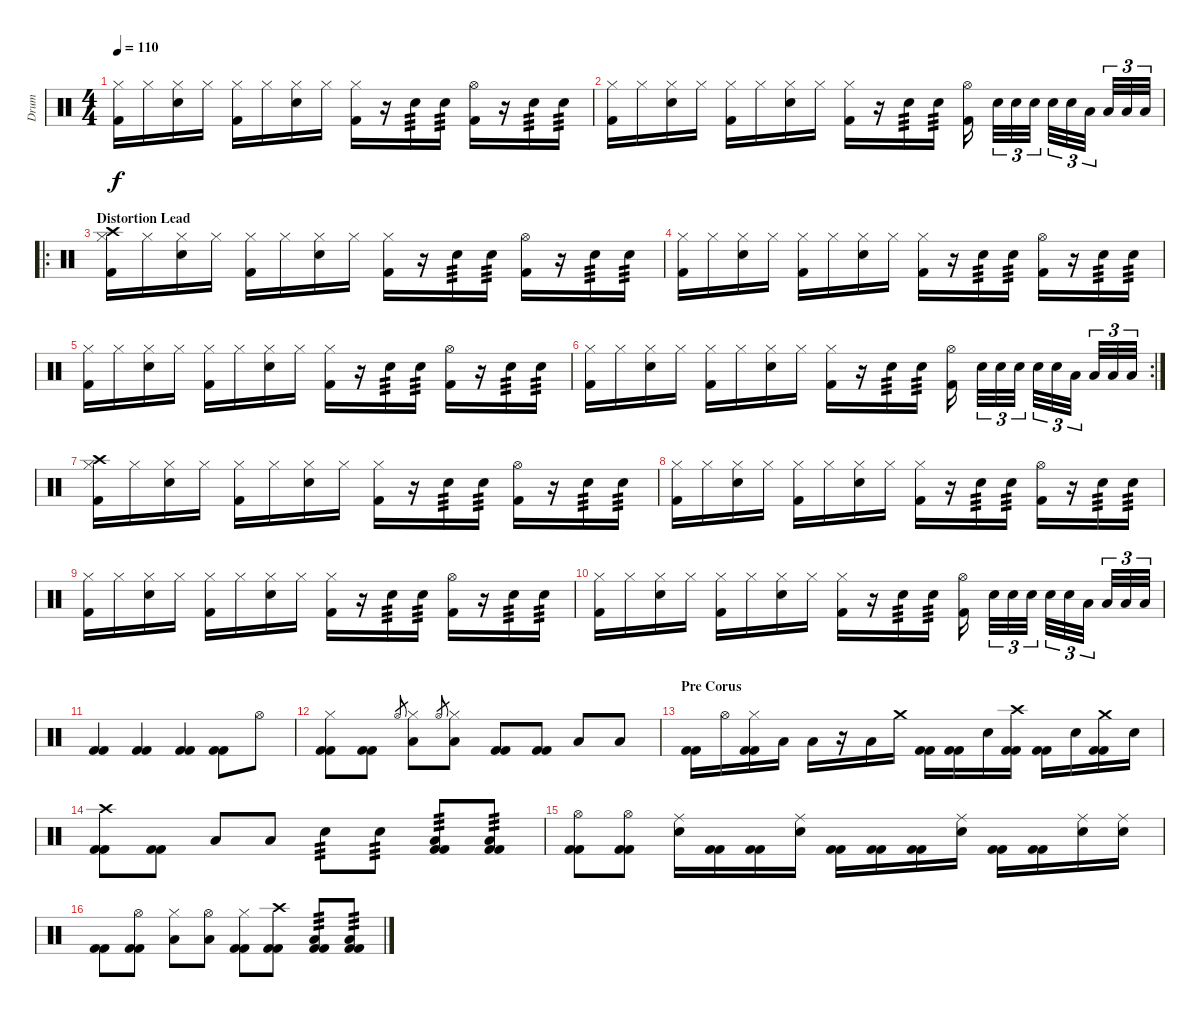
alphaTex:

\track ("Drum" "Drum") {instrument percussion}
\staff {score}
\articulation defaults
\ts (4 4)
\tempo 110
\clef neutral
\ks c
("Kick (hit) 2" "Hi-Hat (closed)").16{dy f} "Hi-Hat (closed)".16 ("Snare (hit) 2" "Hi-Hat (closed)").16 "Hi-Hat (closed)".16 ("Kick (hit) 2" "Hi-Hat (closed)").16 "Hi-Hat (closed)".16 ("Snare (hit) 2" "Hi-Hat (closed)").16 "Hi-Hat (closed)".16 ("Kick (hit) 2" "Hi-Hat (closed)").16 r.16 "Snare (hit) 2".16{tp 3} "Snare (hit) 2".16{tp 3} ("Kick (hit) 2" "Hi-Hat (open)").16 r.16 "Snare (hit) 2".16{tp 3} "Snare (hit) 2".16{tp 3} |
("Kick (hit) 2" "Hi-Hat (closed)").16 "Hi-Hat (closed)".16 ("Snare (hit) 2" "Hi-Hat (closed)").16 "Hi-Hat (closed)".16 ("Kick (hit) 2" "Hi-Hat (closed)").16 "Hi-Hat (closed)".16 ("Snare (hit) 2" "Hi-Hat (closed)").16 "Hi-Hat (closed)".16 ("Kick (hit) 2" "Hi-Hat (closed)").16 r.16 "Snare (hit) 2".16{tp 3} "Snare (hit) 2".16{tp 3} ("Kick (hit) 2" "Hi-Hat (open)").16 "Snare (hit) 2".32{tu (3 2)} "Snare (hit) 2".32{tu (3 2)} "Snare (hit) 2".32{tu (3 2)} "Snare (hit) 2".32{tu (3 2)} "Snare (hit) 2".32{tu (3 2)} "Low Tom (hit)".32{tu (3 2)} "Low Tom (hit)".32{tu (3 2)} "Low Tom (hit)".32{tu (3 2)} "Low Tom (hit)".32{tu (3 2)} |
\ro
\section ("" "Distortion Lead")
("Kick (hit) 2" "Hi-Hat (closed)" "Crash high (hit)").16 "Hi-Hat (closed)".16 ("Snare (hit) 2" "Hi-Hat (closed)").16 "Hi-Hat (closed)".16 ("Kick (hit) 2" "Hi-Hat (closed)").16 "Hi-Hat (closed)".16 ("Snare (hit) 2" "Hi-Hat (closed)").16 "Hi-Hat (closed)".16 ("Kick (hit) 2" "Hi-Hat (closed)").16 r.16 "Snare (hit) 2".16{tp 3} "Snare (hit) 2".16{tp 3} ("Kick (hit) 2" "Hi-Hat (open)").16 r.16 "Snare (hit) 2".16{tp 3} "Snare (hit) 2".16{tp 3} |
("Kick (hit) 2" "Hi-Hat (closed)").16 "Hi-Hat (closed)".16 ("Snare (hit) 2" "Hi-Hat (closed)").16 "Hi-Hat (closed)".16 ("Kick (hit) 2" "Hi-Hat (closed)").16 "Hi-Hat (closed)".16 ("Snare (hit) 2" "Hi-Hat (closed)").16 "Hi-Hat (closed)".16 ("Kick (hit) 2" "Hi-Hat (closed)").16 r.16 "Snare (hit) 2".16{tp 3} "Snare (hit) 2".16{tp 3} ("Kick (hit) 2" "Hi-Hat (open)").16 r.16 "Snare (hit) 2".16{tp 3} "Snare (hit) 2".16{tp 3} |
("Kick (hit) 2" "Hi-Hat (closed)").16 "Hi-Hat (closed)".16 ("Snare (hit) 2" "Hi-Hat (closed)").16 "Hi-Hat (closed)".16 ("Kick (hit) 2" "Hi-Hat (closed)").16 "Hi-Hat (closed)".16 ("Snare (hit) 2" "Hi-Hat (closed)").16 "Hi-Hat (closed)".16 ("Kick (hit) 2" "Hi-Hat (closed)").16 r.16 "Snare (hit) 2".16{tp 3} "Snare (hit) 2".16{tp 3} ("Kick (hit) 2" "Hi-Hat (open)").16 r.16 "Snare (hit) 2".16{tp 3} "Snare (hit) 2".16{tp 3} |
\rc 2
("Kick (hit) 2" "Hi-Hat (closed)").16 "Hi-Hat (closed)".16 ("Snare (hit) 2" "Hi-Hat (closed)").16 "Hi-Hat (closed)".16 ("Kick (hit) 2" "Hi-Hat (closed)").16 "Hi-Hat (closed)".16 ("Snare (hit) 2" "Hi-Hat (closed)").16 "Hi-Hat (closed)".16 ("Kick (hit) 2" "Hi-Hat (closed)").16 r.16 "Snare (hit) 2".16{tp 3} "Snare (hit) 2".16{tp 3} ("Kick (hit) 2" "Hi-Hat (open)").16 "Snare (hit) 2".32{tu (3 2)} "Snare (hit) 2".32{tu (3 2)} "Snare (hit) 2".32{tu (3 2)} "Snare (hit) 2".32{tu (3 2)} "Snare (hit) 2".32{tu (3 2)} "Low Tom (hit)".32{tu (3 2)} "Low Tom (hit)".32{tu (3 2)} "Low Tom (hit)".32{tu (3 2)} "Low Tom (hit)".32{tu (3 2)} |
("Kick (hit) 2" "Hi-Hat (closed)" "Crash high (hit)").16 "Hi-Hat (closed)".16 ("Snare (hit) 2" "Hi-Hat (closed)").16 "Hi-Hat (closed)".16 ("Kick (hit) 2" "Hi-Hat (closed)").16 "Hi-Hat (closed)".16 ("Snare (hit) 2" "Hi-Hat (closed)").16 "Hi-Hat (closed)".16 ("Kick (hit) 2" "Hi-Hat (closed)").16 r.16 "Snare (hit) 2".16{tp 3} "Snare (hit) 2".16{tp 3} ("Kick (hit) 2" "Hi-Hat (open)").16 r.16 "Snare (hit) 2".16{tp 3} "Snare (hit) 2".16{tp 3} |
("Kick (hit) 2" "Hi-Hat (closed)").16 "Hi-Hat (closed)".16 ("Snare (hit) 2" "Hi-Hat (closed)").16 "Hi-Hat (closed)".16 ("Kick (hit) 2" "Hi-Hat (closed)").16 "Hi-Hat (closed)".16 ("Snare (hit) 2" "Hi-Hat (closed)").16 "Hi-Hat (closed)".16 ("Kick (hit) 2" "Hi-Hat (closed)").16 r.16 "Snare (hit) 2".16{tp 3} "Snare (hit) 2".16{tp 3} ("Kick (hit) 2" "Hi-Hat (open)").16 r.16 "Snare (hit) 2".16{tp 3} "Snare (hit) 2".16{tp 3} |
("Kick (hit) 2" "Hi-Hat (closed)").16 "Hi-Hat (closed)".16 ("Snare (hit) 2" "Hi-Hat (closed)").16 "Hi-Hat (closed)".16 ("Kick (hit) 2" "Hi-Hat (closed)").16 "Hi-Hat (closed)".16 ("Snare (hit) 2" "Hi-Hat (closed)").16 "Hi-Hat (closed)".16 ("Kick (hit) 2" "Hi-Hat (closed)").16 r.16 "Snare (hit) 2".16{tp 3} "Snare (hit) 2".16{tp 3} ("Kick (hit) 2" "Hi-Hat (open)").16 r.16 "Snare (hit) 2".16{tp 3} "Snare (hit) 2".16{tp 3} |
("Kick (hit) 2" "Hi-Hat (closed)").16 "Hi-Hat (closed)".16 ("Snare (hit) 2" "Hi-Hat (closed)").16 "Hi-Hat (closed)".16 ("Kick (hit) 2" "Hi-Hat (closed)").16 "Hi-Hat (closed)".16 ("Snare (hit) 2" "Hi-Hat (closed)").16 "Hi-Hat (closed)".16 ("Kick (hit) 2" "Hi-Hat (closed)").16 r.16 "Snare (hit) 2".16{tp 3} "Snare (hit) 2".16{tp 3} ("Kick (hit) 2" "Hi-Hat (open)").16 "Snare (hit) 2".32{tu (3 2)} "Snare (hit) 2".32{tu (3 2)} "Snare (hit) 2".32{tu (3 2)} "Snare (hit) 2".32{tu (3 2)} "Snare (hit) 2".32{tu (3 2)} "Low Tom (hit)".32{tu (3 2)} "Low Tom (hit)".32{tu (3 2)} "Low Tom (hit)".32{tu (3 2)} "Low Tom (hit)".32{tu (3 2)} |
("Kick (hit) 2" "Kick (hit) 2").4 ("Kick (hit) 2" "Kick (hit) 2").4 ("Kick (hit) 2" "Kick (hit) 2").4 ("Kick (hit) 2" "Kick (hit) 2").8 "Hi-Hat (open)".8 |
("Kick (hit) 2" "Kick (hit) 2" "Hi-Hat (closed)").8 ("Kick (hit) 2" "Kick (hit) 2").8 "Hi-Hat (open)".8{gr} ("Low Tom (hit)" "Hi-Hat (closed)").8 "Hi-Hat (open)".8{gr} ("Low Floor Tom (hit)" "Hi-Hat (closed)").8 ("Kick (hit) 2" "Kick (hit) 2").8 ("Kick (hit) 2" "Kick (hit) 2").8 "Low Tom (hit)".8 "Low Floor Tom (hit)".8 |
\section ("" "Pre Corus")
("Kick (hit) 2" "Kick (hit) 2").16 "Hi-Hat (open)".16 ("Kick (hit) 2" "Kick (hit) 2" "Hi-Hat (closed)").16 "Low Tom (hit)".16 "Low Tom (hit)".16 r.16 "Low Floor Tom (hit)".16 "Crash medium (hit)".16 ("Kick (hit) 2" "Kick (hit) 2").16 ("Kick (hit) 2" "Kick (hit) 2").16 "Electric Snare (hit)".16 ("Kick (hit) 2" "Kick (hit) 2" "Crash high (hit)").16 ("Kick (hit) 2" "Kick (hit) 2").16 "Electric Snare (hit)".16 ("Kick (hit) 2" "Kick (hit) 2" "Crash medium (hit)").16 "Electric Snare (hit)".16 |
("Kick (hit) 2" "Kick (hit) 2" "Crash high (hit)").8 ("Kick (hit) 2" "Kick (hit) 2").8 "Low Tom (hit)".8 "Low Floor Tom (hit)".8 "Electric Snare (hit)".8{tp 3} "Electric Snare (hit)".8{tp 3} ("Kick (hit) 2" "Kick (hit) 2" "Low Tom (hit)").8{tp 3} ("Kick (hit) 2" "Kick (hit) 2" "Low Floor Tom (hit)").8{tp 3} |
("Kick (hit) 2" "Kick (hit) 2" "Hi-Hat (open)").8 ("Kick (hit) 2" "Kick (hit) 2" "Hi-Hat (open)").8 ("Electric Snare (hit)" "Ride (middle)").16 ("Kick (hit) 2" "Kick (hit) 2").16 ("Kick (hit) 2" "Kick (hit) 2").16 ("Electric Snare (hit)" "Ride (middle)").16 ("Kick (hit) 2" "Kick (hit) 2").16 ("Kick (hit) 2" "Kick (hit) 2").16 ("Kick (hit) 2" "Kick (hit) 2").16 ("Electric Snare (hit)" "Ride (middle)").16 ("Kick (hit) 2" "Kick (hit) 2").16 ("Kick (hit) 2" "Kick (hit) 2").16 ("Electric Snare (hit)" "Ride (middle)").16 ("Electric Snare (hit)" "Ride (middle)").16 |
("Kick (hit) 2" "Kick (hit) 2").8 ("Kick (hit) 2" "Kick (hit) 2" "Hi-Hat (open)").8 ("Low Tom (hit)" "Hi-Hat (closed)").8 ("Low Floor Tom (hit)" "Hi-Hat (open)").8 ("Kick (hit) 2" "Kick (hit) 2" "Hi-Hat (closed)").8 ("Kick (hit) 2" "Kick (hit) 2" "Crash high (hit)").8 ("Kick (hit) 2" "Kick (hit) 2" "Low Tom (hit)").8{tp 3} ("Kick (hit) 2" "Kick (hit) 2" "Low Floor Tom (hit)").8{tp 3}
